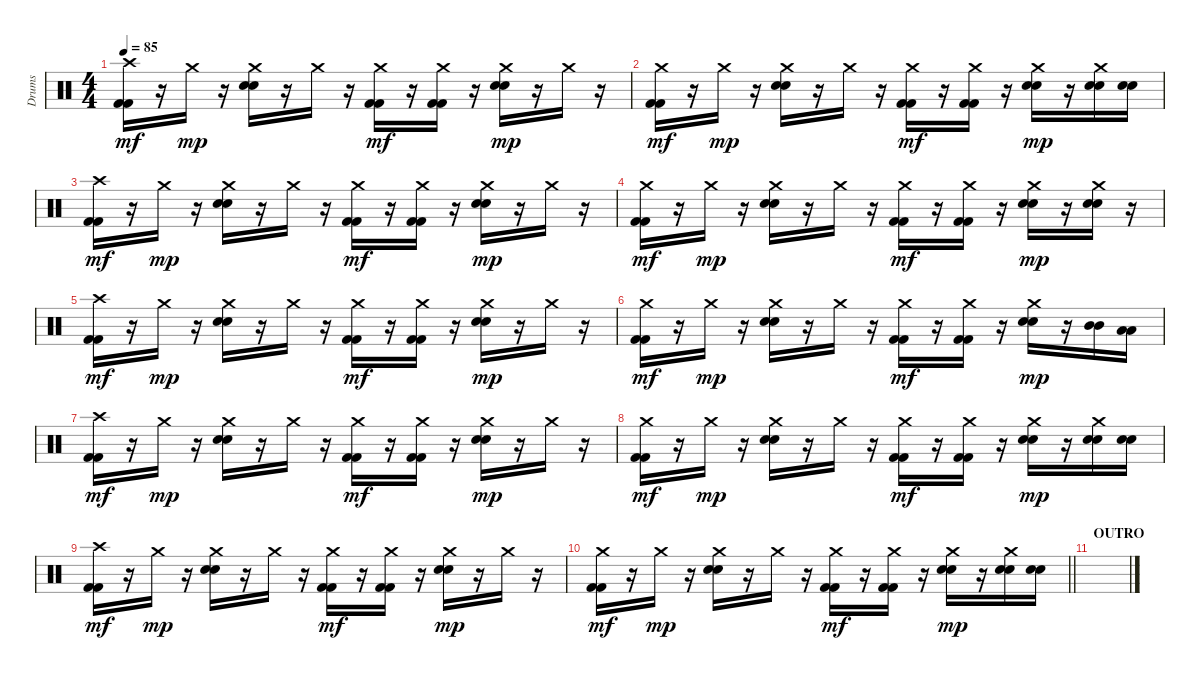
\track ("Drums" "Drums") {instrument percussion}
\staff {score}
\articulation defaults
\ts (4 4)
\tempo 85
\clef neutral
\ks c
("Crash high (hit)" "Kick (hit) 2" "Kick (hit) 2").16{dy mf} r.16 "Crash medium (hit)".16{dy mp} r.16 ("Crash medium (hit)" "Snare (hit) 2" "Electric Snare (hit)").16 r.16 "Crash medium (hit)".16 r.16 ("Crash medium (hit)" "Kick (hit) 2" "Kick (hit) 2").16{dy mf} r.16 ("Crash medium (hit)" "Kick (hit) 2" "Kick (hit) 2").16 r.16 ("Crash medium (hit)" "Snare (hit) 2" "Electric Snare (hit)").16{dy mp} r.16 "Crash medium (hit)".16 r.16 |
("Crash medium (hit)" "Kick (hit) 2" "Kick (hit) 2").16{dy mf} r.16 "Crash medium (hit)".16{dy mp} r.16 ("Crash medium (hit)" "Snare (hit) 2" "Electric Snare (hit)").16 r.16 "Crash medium (hit)".16 r.16 ("Crash medium (hit)" "Kick (hit) 2" "Kick (hit) 2").16{dy mf} r.16 ("Crash medium (hit)" "Kick (hit) 2" "Kick (hit) 2").16 r.16 ("Crash medium (hit)" "Snare (hit) 2" "Electric Snare (hit)").16{dy mp} r.16 ("Crash medium (hit)" "Snare (hit) 2" "Electric Snare (hit)").16 ("Snare (hit) 2" "Electric Snare (hit)").16 |
("Crash high (hit)" "Kick (hit) 2" "Kick (hit) 2").16{dy mf} r.16 "Crash medium (hit)".16{dy mp} r.16 ("Crash medium (hit)" "Snare (hit) 2" "Electric Snare (hit)").16 r.16 "Crash medium (hit)".16 r.16 ("Crash medium (hit)" "Kick (hit) 2" "Kick (hit) 2").16{dy mf} r.16 ("Crash medium (hit)" "Kick (hit) 2" "Kick (hit) 2").16 r.16 ("Crash medium (hit)" "Snare (hit) 2" "Electric Snare (hit)").16{dy mp} r.16 "Crash medium (hit)".16 r.16 |
("Crash medium (hit)" "Kick (hit) 2" "Kick (hit) 2").16{dy mf} r.16 "Crash medium (hit)".16{dy mp} r.16 ("Crash medium (hit)" "Snare (hit) 2" "Electric Snare (hit)").16 r.16 "Crash medium (hit)".16 r.16 ("Crash medium (hit)" "Kick (hit) 2" "Kick (hit) 2").16{dy mf} r.16 ("Crash medium (hit)" "Kick (hit) 2" "Kick (hit) 2").16 r.16 ("Crash medium (hit)" "Snare (hit) 2" "Electric Snare (hit)").16{dy mp} r.16 ("Crash medium (hit)" "Snare (hit) 2" "Electric Snare (hit)").16 r.16 |
("Crash high (hit)" "Kick (hit) 2" "Kick (hit) 2").16{dy mf} r.16 "Crash medium (hit)".16{dy mp} r.16 ("Crash medium (hit)" "Snare (hit) 2" "Electric Snare (hit)").16 r.16 "Crash medium (hit)".16 r.16 ("Crash medium (hit)" "Kick (hit) 2" "Kick (hit) 2").16{dy mf} r.16 ("Crash medium (hit)" "Kick (hit) 2" "Kick (hit) 2").16 r.16 ("Crash medium (hit)" "Snare (hit) 2" "Electric Snare (hit)").16{dy mp} r.16 "Crash medium (hit)".16 r.16 |
("Crash medium (hit)" "Kick (hit) 2" "Kick (hit) 2").16{dy mf} r.16 "Crash medium (hit)".16{dy mp} r.16 ("Crash medium (hit)" "Snare (hit) 2" "Electric Snare (hit)").16 r.16 "Crash medium (hit)".16 r.16 ("Crash medium (hit)" "Kick (hit) 2" "Kick (hit) 2").16{dy mf} r.16 ("Crash medium (hit)" "Kick (hit) 2" "Kick (hit) 2").16 r.16 ("Crash medium (hit)" "Snare (hit) 2" "Electric Snare (hit)").16{dy mp} r.16 ("Mid Tom (hit)" "Mid Tom (hit)").16 ("Low Tom (hit)" "Low Tom (hit)").16 |
("Crash high (hit)" "Kick (hit) 2" "Kick (hit) 2").16{dy mf} r.16 "Crash medium (hit)".16{dy mp} r.16 ("Crash medium (hit)" "Snare (hit) 2" "Electric Snare (hit)").16 r.16 "Crash medium (hit)".16 r.16 ("Crash medium (hit)" "Kick (hit) 2" "Kick (hit) 2").16{dy mf} r.16 ("Crash medium (hit)" "Kick (hit) 2" "Kick (hit) 2").16 r.16 ("Crash medium (hit)" "Snare (hit) 2" "Electric Snare (hit)").16{dy mp} r.16 "Crash medium (hit)".16 r.16 |
("Crash medium (hit)" "Kick (hit) 2" "Kick (hit) 2").16{dy mf} r.16 "Crash medium (hit)".16{dy mp} r.16 ("Crash medium (hit)" "Snare (hit) 2" "Electric Snare (hit)").16 r.16 "Crash medium (hit)".16 r.16 ("Crash medium (hit)" "Kick (hit) 2" "Kick (hit) 2").16{dy mf} r.16 ("Crash medium (hit)" "Kick (hit) 2" "Kick (hit) 2").16 r.16 ("Crash medium (hit)" "Snare (hit) 2" "Electric Snare (hit)").16{dy mp} r.16 ("Crash medium (hit)" "Snare (hit) 2" "Electric Snare (hit)").16 ("Snare (hit) 2" "Electric Snare (hit)").16 |
("Crash high (hit)" "Kick (hit) 2" "Kick (hit) 2").16{dy mf} r.16 "Crash medium (hit)".16{dy mp} r.16 ("Crash medium (hit)" "Snare (hit) 2" "Electric Snare (hit)").16 r.16 "Crash medium (hit)".16 r.16 ("Crash medium (hit)" "Kick (hit) 2" "Kick (hit) 2").16{dy mf} r.16 ("Crash medium (hit)" "Kick (hit) 2" "Kick (hit) 2").16 r.16 ("Crash medium (hit)" "Snare (hit) 2" "Electric Snare (hit)").16{dy mp} r.16 "Crash medium (hit)".16 r.16 |
\barLineRight lightlight
("Crash medium (hit)" "Kick (hit) 2" "Kick (hit) 2").16{dy mf} r.16 "Crash medium (hit)".16{dy mp} r.16 ("Crash medium (hit)" "Snare (hit) 2" "Electric Snare (hit)").16 r.16 "Crash medium (hit)".16 r.16 ("Crash medium (hit)" "Kick (hit) 2" "Kick (hit) 2").16{dy mf} r.16 ("Crash medium (hit)" "Kick (hit) 2" "Kick (hit) 2").16 r.16 ("Crash medium (hit)" "Snare (hit) 2" "Electric Snare (hit)").16{dy mp} r.16 ("Crash medium (hit)" "Snare (hit) 2" "Electric Snare (hit)").16 ("Snare (hit) 2" "Electric Snare (hit)").16 |
\section ("" "OUTRO")
